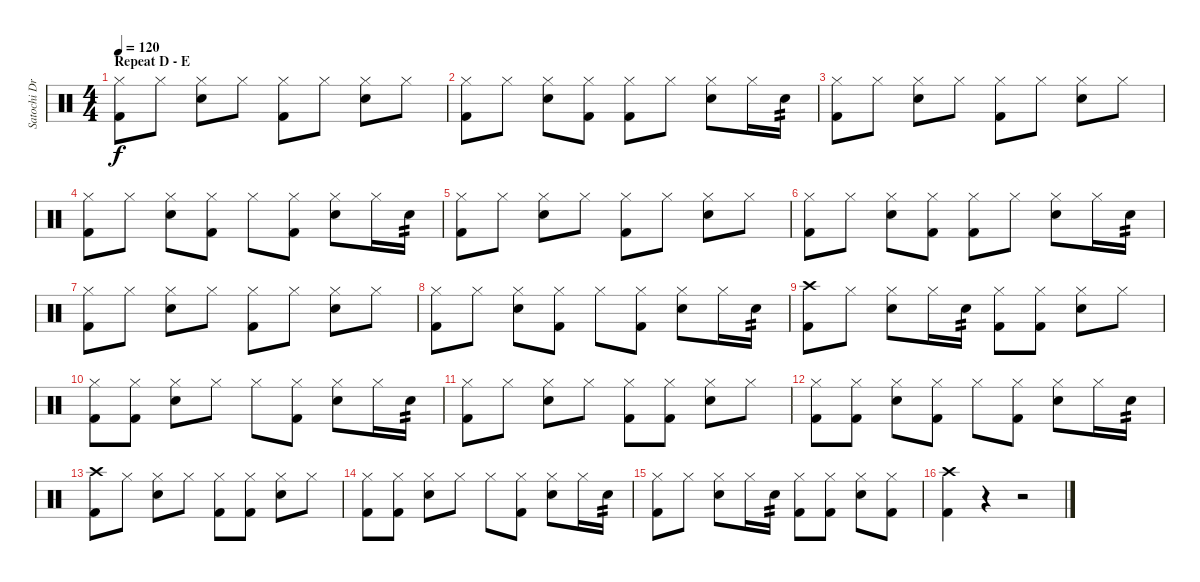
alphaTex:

\track ("Satochi Drums" "Satochi Dr") {instrument percussion}
\staff {score}
\articulation defaults
\ts (4 4)
\section ("" "Repeat D - E")
\tempo 120
\clef neutral
\ks c
("Hi-Hat (closed)" "Kick (hit) 2").8{dy f} "Hi-Hat (closed)".8 ("Hi-Hat (closed)" "Snare (hit) 2").8 "Hi-Hat (closed)".8 ("Hi-Hat (closed)" "Kick (hit) 2").8 "Hi-Hat (closed)".8 ("Hi-Hat (closed)" "Snare (hit) 2").8 "Hi-Hat (closed)".8 |
("Hi-Hat (closed)" "Kick (hit) 2").8 "Hi-Hat (closed)".8 ("Hi-Hat (closed)" "Snare (hit) 2").8 ("Hi-Hat (closed)" "Kick (hit) 2").8 ("Hi-Hat (closed)" "Kick (hit) 2").8 "Hi-Hat (closed)".8 ("Hi-Hat (closed)" "Snare (hit) 2").8 "Hi-Hat (closed)".16 "Snare (hit) 2".16{tp 2} |
("Hi-Hat (closed)" "Kick (hit) 2").8 "Hi-Hat (closed)".8 ("Hi-Hat (closed)" "Snare (hit) 2").8 "Hi-Hat (closed)".8 ("Hi-Hat (closed)" "Kick (hit) 2").8 "Hi-Hat (closed)".8 ("Hi-Hat (closed)" "Snare (hit) 2").8 "Hi-Hat (closed)".8 |
("Hi-Hat (closed)" "Kick (hit) 2").8 "Hi-Hat (closed)".8 ("Hi-Hat (closed)" "Snare (hit) 2").8 ("Hi-Hat (closed)" "Kick (hit) 2").8 "Hi-Hat (closed)".8 ("Hi-Hat (closed)" "Kick (hit) 2").8 ("Hi-Hat (closed)" "Snare (hit) 2").8 "Hi-Hat (closed)".16 "Snare (hit) 2".16{tp 2} |
("Hi-Hat (closed)" "Kick (hit) 2").8 "Hi-Hat (closed)".8 ("Hi-Hat (closed)" "Snare (hit) 2").8 "Hi-Hat (closed)".8 ("Hi-Hat (closed)" "Kick (hit) 2").8 "Hi-Hat (closed)".8 ("Hi-Hat (closed)" "Snare (hit) 2").8 "Hi-Hat (closed)".8 |
("Hi-Hat (closed)" "Kick (hit) 2").8 "Hi-Hat (closed)".8 ("Hi-Hat (closed)" "Snare (hit) 2").8 ("Hi-Hat (closed)" "Kick (hit) 2").8 ("Hi-Hat (closed)" "Kick (hit) 2").8 "Hi-Hat (closed)".8 ("Hi-Hat (closed)" "Snare (hit) 2").8 "Hi-Hat (closed)".16 "Snare (hit) 2".16{tp 2} |
("Hi-Hat (closed)" "Kick (hit) 2").8 "Hi-Hat (closed)".8 ("Hi-Hat (closed)" "Snare (hit) 2").8 "Hi-Hat (closed)".8 ("Hi-Hat (closed)" "Kick (hit) 2").8 "Hi-Hat (closed)".8 ("Hi-Hat (closed)" "Snare (hit) 2").8 "Hi-Hat (closed)".8 |
("Hi-Hat (closed)" "Kick (hit) 2").8 "Hi-Hat (closed)".8 ("Hi-Hat (closed)" "Snare (hit) 2").8 ("Hi-Hat (closed)" "Kick (hit) 2").8 "Hi-Hat (closed)".8 ("Hi-Hat (closed)" "Kick (hit) 2").8 ("Hi-Hat (closed)" "Snare (hit) 2").8 "Hi-Hat (closed)".16 "Snare (hit) 2".16{tp 2} |
("Crash high (hit)" "Kick (hit) 2").8 "Hi-Hat (closed)".8 ("Hi-Hat (closed)" "Snare (hit) 2").8 "Hi-Hat (closed)".16 "Snare (hit) 2".16{tp 2} ("Hi-Hat (closed)" "Kick (hit) 2").8 ("Hi-Hat (closed)" "Kick (hit) 2").8 ("Hi-Hat (closed)" "Snare (hit) 2").8 "Hi-Hat (closed)".8 |
("Hi-Hat (closed)" "Kick (hit) 2").8 ("Hi-Hat (closed)" "Kick (hit) 2").8 ("Hi-Hat (closed)" "Snare (hit) 2").8 "Hi-Hat (closed)".8 "Hi-Hat (closed)".8 ("Hi-Hat (closed)" "Kick (hit) 2").8 ("Hi-Hat (closed)" "Snare (hit) 2").8 "Hi-Hat (closed)".16 "Snare (hit) 2".16{tp 2} |
("Hi-Hat (closed)" "Kick (hit) 2").8 "Hi-Hat (closed)".8 ("Hi-Hat (closed)" "Snare (hit) 2").8 "Hi-Hat (closed)".8 ("Hi-Hat (closed)" "Kick (hit) 2").8 ("Hi-Hat (closed)" "Kick (hit) 2").8 ("Hi-Hat (closed)" "Snare (hit) 2").8 "Hi-Hat (closed)".8 |
("Hi-Hat (closed)" "Kick (hit) 2").8 ("Hi-Hat (closed)" "Kick (hit) 2").8 ("Hi-Hat (closed)" "Snare (hit) 2").8 ("Hi-Hat (closed)" "Kick (hit) 2").8 "Hi-Hat (closed)".8 ("Hi-Hat (closed)" "Kick (hit) 2").8 ("Hi-Hat (closed)" "Snare (hit) 2").8 "Hi-Hat (closed)".16 "Snare (hit) 2".16{tp 2} |
("Crash high (hit)" "Kick (hit) 2").8 "Hi-Hat (closed)".8 ("Hi-Hat (closed)" "Snare (hit) 2").8 "Hi-Hat (closed)".8 ("Hi-Hat (closed)" "Kick (hit) 2").8 ("Hi-Hat (closed)" "Kick (hit) 2").8 ("Hi-Hat (closed)" "Snare (hit) 2").8 "Hi-Hat (closed)".8 |
("Hi-Hat (closed)" "Kick (hit) 2").8 ("Hi-Hat (closed)" "Kick (hit) 2").8 ("Hi-Hat (closed)" "Snare (hit) 2").8 "Hi-Hat (closed)".8 "Hi-Hat (closed)".8 ("Hi-Hat (closed)" "Kick (hit) 2").8 ("Hi-Hat (closed)" "Snare (hit) 2").8 "Hi-Hat (closed)".16 "Snare (hit) 2".16{tp 2} |
("Hi-Hat (closed)" "Kick (hit) 2").8 "Hi-Hat (closed)".8 ("Hi-Hat (closed)" "Snare (hit) 2").8 "Hi-Hat (closed)".16 "Snare (hit) 2".16{tp 2} ("Hi-Hat (closed)" "Kick (hit) 2").8 ("Hi-Hat (closed)" "Kick (hit) 2").8 ("Hi-Hat (closed)" "Snare (hit) 2").8 ("Hi-Hat (closed)" "Kick (hit) 2").8 |
("Crash high (hit)" "Kick (hit) 2").4 r.4 r.2
